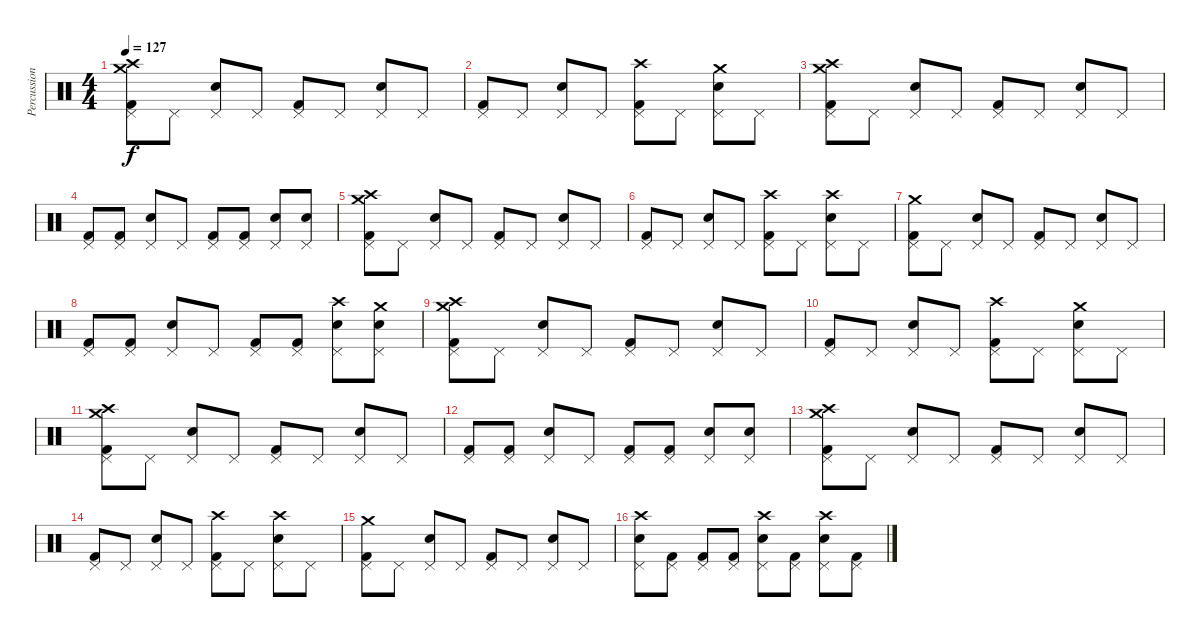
\track ("Percussion" "Percussion") {instrument percussion}
\staff {score}
\articulation defaults
\ts (4 4)
\tempo 127
\clef neutral
\ks c
("Crash medium (hit)" "Crash high (hit)" "Pedal Hi-Hat (hit)" "Kick (hit) 2").8{dy f} "Pedal Hi-Hat (hit)".8 ("Pedal Hi-Hat (hit)" "Snare (hit) 2").8 "Pedal Hi-Hat (hit)".8 ("Pedal Hi-Hat (hit)" "Kick (hit) 2").8 "Pedal Hi-Hat (hit)".8 ("Pedal Hi-Hat (hit)" "Snare (hit) 2").8 "Pedal Hi-Hat (hit)".8 |
("Pedal Hi-Hat (hit)" "Kick (hit) 2").8 "Pedal Hi-Hat (hit)".8 ("Pedal Hi-Hat (hit)" "Snare (hit) 2").8 "Pedal Hi-Hat (hit)".8 ("Crash high (hit)" "Pedal Hi-Hat (hit)" "Kick (hit) 2").8 "Pedal Hi-Hat (hit)".8 ("Crash medium (hit)" "Pedal Hi-Hat (hit)" "Snare (hit) 2").8 "Pedal Hi-Hat (hit)".8 |
("Crash medium (hit)" "Crash high (hit)" "Pedal Hi-Hat (hit)" "Kick (hit) 2").8 "Pedal Hi-Hat (hit)".8 ("Pedal Hi-Hat (hit)" "Snare (hit) 2").8 "Pedal Hi-Hat (hit)".8 ("Pedal Hi-Hat (hit)" "Kick (hit) 2").8 "Pedal Hi-Hat (hit)".8 ("Pedal Hi-Hat (hit)" "Snare (hit) 2").8 "Pedal Hi-Hat (hit)".8 |
("Pedal Hi-Hat (hit)" "Kick (hit) 2").8 ("Pedal Hi-Hat (hit)" "Kick (hit) 2").8 ("Pedal Hi-Hat (hit)" "Snare (hit) 2").8 "Pedal Hi-Hat (hit)".8 ("Pedal Hi-Hat (hit)" "Kick (hit) 2").8 ("Pedal Hi-Hat (hit)" "Kick (hit) 2").8 ("Pedal Hi-Hat (hit)" "Snare (hit) 2").8 ("Pedal Hi-Hat (hit)" "Snare (hit) 2").8 |
("Crash medium (hit)" "Crash high (hit)" "Pedal Hi-Hat (hit)" "Kick (hit) 2").8 "Pedal Hi-Hat (hit)".8 ("Pedal Hi-Hat (hit)" "Snare (hit) 2").8 "Pedal Hi-Hat (hit)".8 ("Pedal Hi-Hat (hit)" "Kick (hit) 2").8 "Pedal Hi-Hat (hit)".8 ("Pedal Hi-Hat (hit)" "Snare (hit) 2").8 "Pedal Hi-Hat (hit)".8 |
("Pedal Hi-Hat (hit)" "Kick (hit) 2").8 "Pedal Hi-Hat (hit)".8 ("Pedal Hi-Hat (hit)" "Snare (hit) 2").8 "Pedal Hi-Hat (hit)".8 ("Crash high (hit)" "Pedal Hi-Hat (hit)" "Kick (hit) 2").8 "Pedal Hi-Hat (hit)".8 ("Crash high (hit)" "Pedal Hi-Hat (hit)" "Snare (hit) 2").8 "Pedal Hi-Hat (hit)".8 |
("Crash medium (hit)" "Pedal Hi-Hat (hit)" "Kick (hit) 2").8 "Pedal Hi-Hat (hit)".8 ("Pedal Hi-Hat (hit)" "Snare (hit) 2").8 "Pedal Hi-Hat (hit)".8 ("Pedal Hi-Hat (hit)" "Kick (hit) 2").8 "Pedal Hi-Hat (hit)".8 ("Pedal Hi-Hat (hit)" "Snare (hit) 2").8 "Pedal Hi-Hat (hit)".8 |
("Pedal Hi-Hat (hit)" "Kick (hit) 2").8 ("Pedal Hi-Hat (hit)" "Kick (hit) 2").8 ("Pedal Hi-Hat (hit)" "Snare (hit) 2").8 "Pedal Hi-Hat (hit)".8 ("Pedal Hi-Hat (hit)" "Kick (hit) 2").8 ("Pedal Hi-Hat (hit)" "Kick (hit) 2").8 ("Crash high (hit)" "Pedal Hi-Hat (hit)" "Snare (hit) 2").8 ("Crash medium (hit)" "Pedal Hi-Hat (hit)" "Snare (hit) 2").8 |
("Crash medium (hit)" "Crash high (hit)" "Pedal Hi-Hat (hit)" "Kick (hit) 2").8 "Pedal Hi-Hat (hit)".8 ("Pedal Hi-Hat (hit)" "Snare (hit) 2").8 "Pedal Hi-Hat (hit)".8 ("Pedal Hi-Hat (hit)" "Kick (hit) 2").8 "Pedal Hi-Hat (hit)".8 ("Pedal Hi-Hat (hit)" "Snare (hit) 2").8 "Pedal Hi-Hat (hit)".8 |
("Pedal Hi-Hat (hit)" "Kick (hit) 2").8 "Pedal Hi-Hat (hit)".8 ("Pedal Hi-Hat (hit)" "Snare (hit) 2").8 "Pedal Hi-Hat (hit)".8 ("Crash high (hit)" "Pedal Hi-Hat (hit)" "Kick (hit) 2").8 "Pedal Hi-Hat (hit)".8 ("Crash medium (hit)" "Pedal Hi-Hat (hit)" "Snare (hit) 2").8 "Pedal Hi-Hat (hit)".8 |
("Crash medium (hit)" "Crash high (hit)" "Pedal Hi-Hat (hit)" "Kick (hit) 2").8 "Pedal Hi-Hat (hit)".8 ("Pedal Hi-Hat (hit)" "Snare (hit) 2").8 "Pedal Hi-Hat (hit)".8 ("Pedal Hi-Hat (hit)" "Kick (hit) 2").8 "Pedal Hi-Hat (hit)".8 ("Pedal Hi-Hat (hit)" "Snare (hit) 2").8 "Pedal Hi-Hat (hit)".8 |
("Pedal Hi-Hat (hit)" "Kick (hit) 2").8 ("Pedal Hi-Hat (hit)" "Kick (hit) 2").8 ("Pedal Hi-Hat (hit)" "Snare (hit) 2").8 "Pedal Hi-Hat (hit)".8 ("Pedal Hi-Hat (hit)" "Kick (hit) 2").8 ("Pedal Hi-Hat (hit)" "Kick (hit) 2").8 ("Pedal Hi-Hat (hit)" "Snare (hit) 2").8 ("Pedal Hi-Hat (hit)" "Snare (hit) 2").8 |
("Crash medium (hit)" "Crash high (hit)" "Pedal Hi-Hat (hit)" "Kick (hit) 2").8 "Pedal Hi-Hat (hit)".8 ("Pedal Hi-Hat (hit)" "Snare (hit) 2").8 "Pedal Hi-Hat (hit)".8 ("Pedal Hi-Hat (hit)" "Kick (hit) 2").8 "Pedal Hi-Hat (hit)".8 ("Pedal Hi-Hat (hit)" "Snare (hit) 2").8 "Pedal Hi-Hat (hit)".8 |
("Pedal Hi-Hat (hit)" "Kick (hit) 2").8 "Pedal Hi-Hat (hit)".8 ("Pedal Hi-Hat (hit)" "Snare (hit) 2").8 "Pedal Hi-Hat (hit)".8 ("Crash high (hit)" "Pedal Hi-Hat (hit)" "Kick (hit) 2").8 "Pedal Hi-Hat (hit)".8 ("Crash high (hit)" "Pedal Hi-Hat (hit)" "Snare (hit) 2").8 "Pedal Hi-Hat (hit)".8 |
("Crash medium (hit)" "Pedal Hi-Hat (hit)" "Kick (hit) 2").8 "Pedal Hi-Hat (hit)".8 ("Pedal Hi-Hat (hit)" "Snare (hit) 2").8 "Pedal Hi-Hat (hit)".8 ("Pedal Hi-Hat (hit)" "Kick (hit) 2").8 "Pedal Hi-Hat (hit)".8 ("Pedal Hi-Hat (hit)" "Snare (hit) 2").8 "Pedal Hi-Hat (hit)".8 |
("Crash high (hit)" "Pedal Hi-Hat (hit)" "Snare (hit) 2").8 ("Pedal Hi-Hat (hit)" "Kick (hit) 2").8 ("Pedal Hi-Hat (hit)" "Kick (hit) 2").8 ("Pedal Hi-Hat (hit)" "Kick (hit) 2").8 ("Crash high (hit)" "Pedal Hi-Hat (hit)" "Snare (hit) 2").8 ("Pedal Hi-Hat (hit)" "Kick (hit) 2").8 ("Crash high (hit)" "Pedal Hi-Hat (hit)" "Snare (hit) 2").8 ("Pedal Hi-Hat (hit)" "Kick (hit) 2").8
